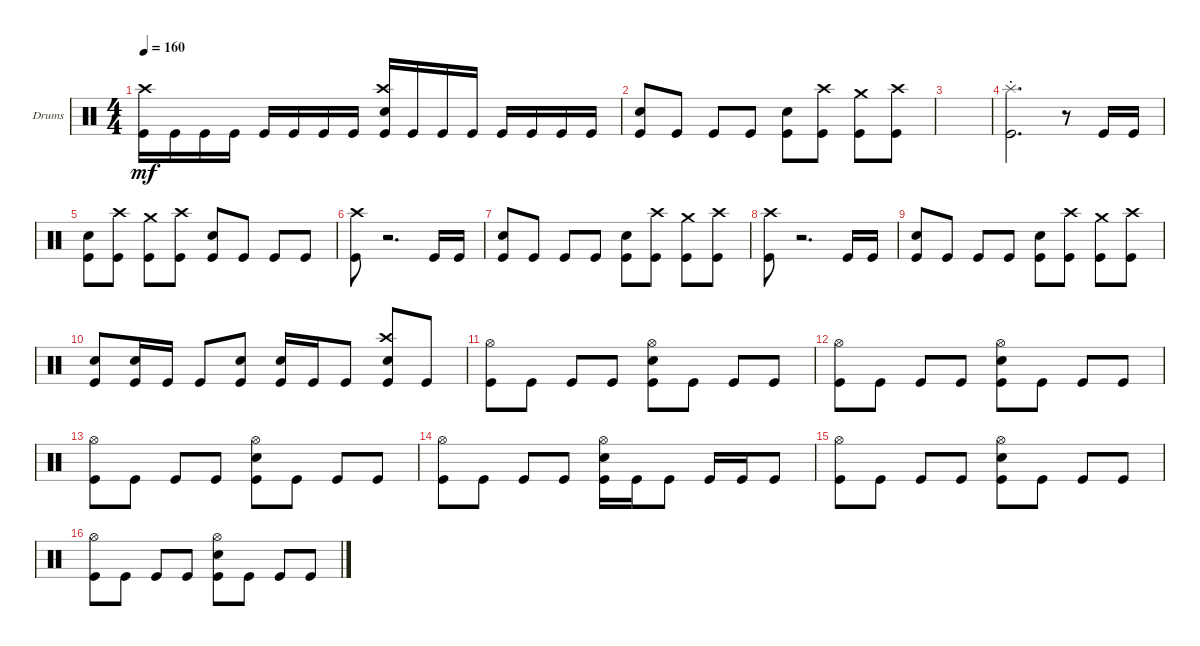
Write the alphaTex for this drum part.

\bracketExtendMode groupsimilarinstruments
\firstSystemTrackNameOrientation horizontal
\otherSystemsTrackNameOrientation horizontal
\track ("Drums" "Drums") {instrument percussion}
\staff {score}
\articulation defaults
\ts (4 4)
\tempo 160
\clef neutral
\scale
0.333333
\ks c
("Kick (hit)" "Crash high (hit)").16{dy mf} "Kick (hit)".16 "Kick (hit)".16 "Kick (hit)".16 "Kick (hit)".16 "Kick (hit)".16 "Kick (hit)".16 "Kick (hit)".16 ("Kick (hit)" "Crash high (hit)" "Snare (hit) 2").16 "Kick (hit)".16 "Kick (hit)".16 "Kick (hit)".16 "Kick (hit)".16 "Kick (hit)".16 "Kick (hit)".16 "Kick (hit)".16 |
\scale
0.333333 ("Kick (hit)" "Snare (hit) 2").8 "Kick (hit)".8 "Kick (hit)".8 "Kick (hit)".8 ("Kick (hit)" "Snare (hit) 2").8 ("Kick (hit)" "Crash high (hit)").8 ("Kick (hit)" "Crash medium (hit)").8 ("Kick (hit)" "Crash high (hit)").8 |
\scale
0.333333 |
\scale
0.333333 ("Kick (hit)" "Splash (hit)"{st}).2{d} r.8 "Kick (hit)".16 "Kick (hit)".16 |
\scale
0.333333 ("Kick (hit)" "Snare (hit) 2").8 ("Kick (hit)" "Crash high (hit)").8 ("Kick (hit)" "Crash medium (hit)").8 ("Kick (hit)" "Crash high (hit)").8 ("Kick (hit)" "Snare (hit) 2").8 "Kick (hit)".8 "Kick (hit)".8 "Kick (hit)".8 |
\scale
0.333333 ("Kick (hit)" "Crash high (hit)").8 r.2{d} "Kick (hit)".16 "Kick (hit)".16 |
\scale
0.333333 ("Kick (hit)" "Snare (hit) 2").8 "Kick (hit)".8 "Kick (hit)".8 "Kick (hit)".8 ("Kick (hit)" "Snare (hit) 2").8 ("Kick (hit)" "Crash high (hit)").8 ("Kick (hit)" "Crash medium (hit)").8 ("Kick (hit)" "Crash high (hit)").8 |
\scale
0.333333 ("Kick (hit)" "Crash high (hit)").8 r.2{d} "Kick (hit)".16 "Kick (hit)".16 |
\scale
0.333333 ("Kick (hit)" "Snare (hit) 2").8 "Kick (hit)".8 "Kick (hit)".8 "Kick (hit)".8 ("Kick (hit)" "Snare (hit) 2").8 ("Kick (hit)" "Crash high (hit)").8 ("Kick (hit)" "Crash medium (hit)").8 ("Kick (hit)" "Crash high (hit)").8 |
\scale
0.333333 ("Snare (hit) 2" "Kick (hit)").8 ("Snare (hit) 2" "Kick (hit)").16 "Kick (hit)".16 "Kick (hit)".8 ("Kick (hit)" "Snare (hit) 2").8 ("Kick (hit)" "Snare (hit) 2").16 "Kick (hit)".16 "Kick (hit)".8 ("Kick (hit)" "Snare (hit) 2" "Crash high (hit)").8 "Kick (hit)".8 |
\scale
0.333333 ("Kick (hit)" "Hi-Hat (open)").8 "Kick (hit)".8 "Kick (hit)".8 "Kick (hit)".8 ("Kick (hit)" "Hi-Hat (open)" "Snare (hit) 2").8 "Kick (hit)".8 "Kick (hit)".8 "Kick (hit)".8 |
\scale
0.333333 ("Kick (hit)" "Hi-Hat (open)").8 "Kick (hit)".8 "Kick (hit)".8 "Kick (hit)".8 ("Kick (hit)" "Hi-Hat (open)" "Snare (hit) 2").8 "Kick (hit)".8 "Kick (hit)".8 "Kick (hit)".8 |
\scale
0.333333 ("Kick (hit)" "Hi-Hat (open)").8 "Kick (hit)".8 "Kick (hit)".8 "Kick (hit)".8 ("Kick (hit)" "Hi-Hat (open)" "Snare (hit) 2").8 "Kick (hit)".8 "Kick (hit)".8 "Kick (hit)".8 |
\scale
0.333333 ("Kick (hit)" "Hi-Hat (open)").8 "Kick (hit)".8 "Kick (hit)".8 "Kick (hit)".8 ("Kick (hit)" "Hi-Hat (open)" "Snare (hit) 2").16 "Kick (hit)".16 "Kick (hit)".8 "Kick (hit)".16 "Kick (hit)".16 "Kick (hit)".8 |
\scale
0.333333 ("Kick (hit)" "Hi-Hat (open)").8 "Kick (hit)".8 "Kick (hit)".8 "Kick (hit)".8 ("Kick (hit)" "Hi-Hat (open)" "Snare (hit) 2").8 "Kick (hit)".8 "Kick (hit)".8 "Kick (hit)".8 |
\scale
0.333333 ("Kick (hit)" "Hi-Hat (open)").8 "Kick (hit)".8 "Kick (hit)".8 "Kick (hit)".8 ("Kick (hit)" "Hi-Hat (open)" "Snare (hit) 2").8 "Kick (hit)".8 "Kick (hit)".8 "Kick (hit)".8
